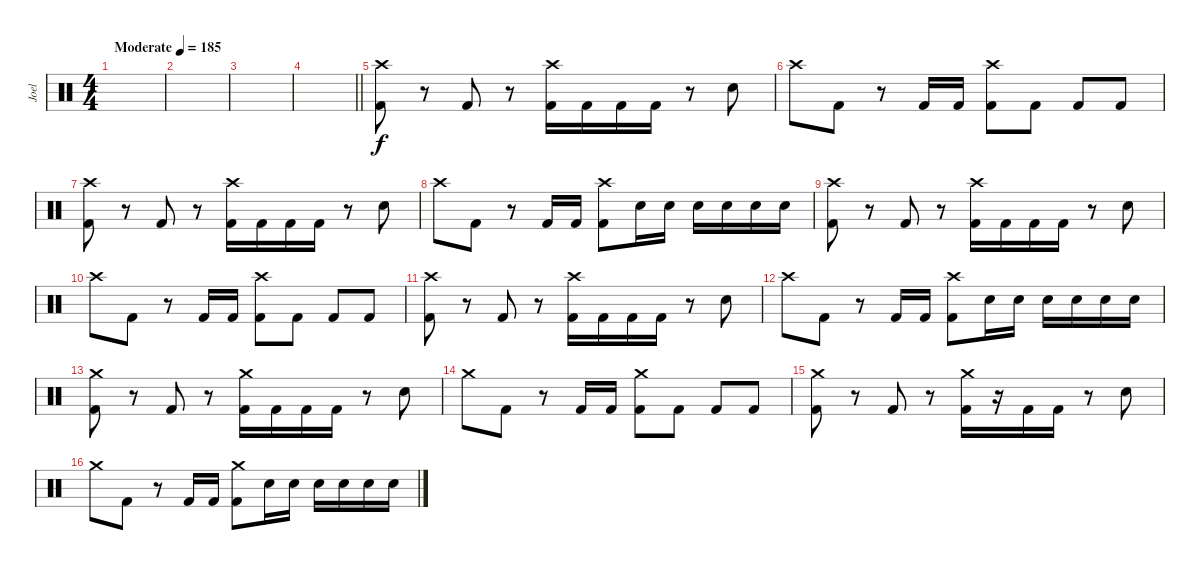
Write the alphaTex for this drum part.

\track ("Joel" "Joel") {instrument percussion}
\staff {score}
\articulation defaults
\ts (4 4)
\tempo (185 "Moderate")
\clef neutral
\ks c
|
|
|
\barLineRight lightlight
|
\section ("" "")
("Crash high (hit)" "Kick (hit) 2").8 r.8 "Kick (hit) 2".8 r.8 ("Crash high (hit)" "Kick (hit) 2").16 "Kick (hit) 2".16 "Kick (hit) 2".16 "Kick (hit) 2".16 r.8 "Electric Snare (hit)".8 |
"Crash high (hit)".8 "Kick (hit) 2".8 r.8 "Kick (hit) 2".16 "Kick (hit) 2".16 ("Crash high (hit)" "Kick (hit) 2").8 "Kick (hit) 2".8 "Kick (hit) 2".8 "Kick (hit) 2".8 |
("Crash high (hit)" "Kick (hit) 2").8 r.8 "Kick (hit) 2".8 r.8 ("Crash high (hit)" "Kick (hit) 2").16 "Kick (hit) 2".16 "Kick (hit) 2".16 "Kick (hit) 2".16 r.8 "Electric Snare (hit)".8 |
"Crash high (hit)".8 "Kick (hit) 2".8 r.8 "Kick (hit) 2".16 "Kick (hit) 2".16 ("Crash high (hit)" "Kick (hit) 2").8 "Electric Snare (hit)".16 "Electric Snare (hit)".16 "Electric Snare (hit)".16 "Electric Snare (hit)".16 "Electric Snare (hit)".16 "Electric Snare (hit)".16 |
("Crash high (hit)" "Kick (hit) 2").8 r.8 "Kick (hit) 2".8 r.8 ("Crash high (hit)" "Kick (hit) 2").16 "Kick (hit) 2".16 "Kick (hit) 2".16 "Kick (hit) 2".16 r.8 "Electric Snare (hit)".8 |
"Crash high (hit)".8 "Kick (hit) 2".8 r.8 "Kick (hit) 2".16 "Kick (hit) 2".16 ("Crash high (hit)" "Kick (hit) 2").8 "Kick (hit) 2".8 "Kick (hit) 2".8 "Kick (hit) 2".8 |
("Crash high (hit)" "Kick (hit) 2").8 r.8 "Kick (hit) 2".8 r.8 ("Crash high (hit)" "Kick (hit) 2").16 "Kick (hit) 2".16 "Kick (hit) 2".16 "Kick (hit) 2".16 r.8 "Electric Snare (hit)".8 |
"Crash high (hit)".8 "Kick (hit) 2".8 r.8 "Kick (hit) 2".16 "Kick (hit) 2".16 ("Crash high (hit)" "Kick (hit) 2").8 "Electric Snare (hit)".16 "Electric Snare (hit)".16 "Electric Snare (hit)".16 "Electric Snare (hit)".16 "Electric Snare (hit)".16 "Electric Snare (hit)".16 |
("Crash medium (hit)" "Kick (hit) 2").8 r.8 "Kick (hit) 2".8 r.8 ("Crash medium (hit)" "Kick (hit) 2").16 "Kick (hit) 2".16 "Kick (hit) 2".16 "Kick (hit) 2".16 r.8 "Electric Snare (hit)".8 |
"Crash medium (hit)".8 "Kick (hit) 2".8 r.8 "Kick (hit) 2".16 "Kick (hit) 2".16 ("Crash medium (hit)" "Kick (hit) 2").8 "Kick (hit) 2".8 "Kick (hit) 2".8 "Kick (hit) 2".8 |
("Crash medium (hit)" "Kick (hit) 2").8 r.8 "Kick (hit) 2".8 r.8 ("Crash medium (hit)" "Kick (hit) 2").16 r.16 "Kick (hit) 2".16 "Kick (hit) 2".16 r.8 "Electric Snare (hit)".8 |
"Crash medium (hit)".8 "Kick (hit) 2".8 r.8 "Kick (hit) 2".16 "Kick (hit) 2".16 ("Crash medium (hit)" "Kick (hit) 2").8 "Electric Snare (hit)".16 "Electric Snare (hit)".16 "Electric Snare (hit)".16 "Electric Snare (hit)".16 "Electric Snare (hit)".16 "Electric Snare (hit)".16
